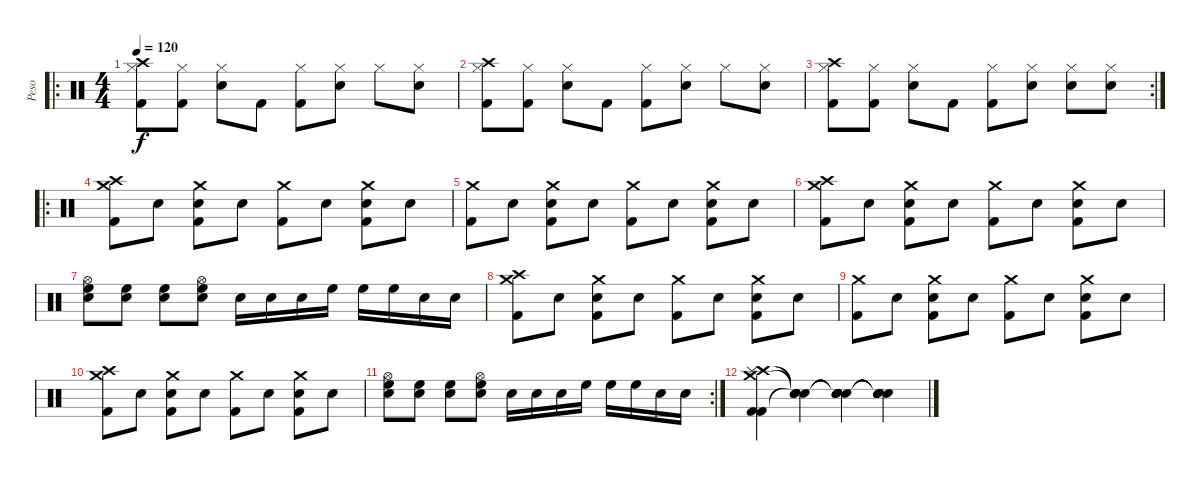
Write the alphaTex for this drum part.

\track ("Peso" "Peso") {instrument percussion}
\staff {score}
\articulation defaults
\ro
\ts (4 4)
\tempo 120
\clef neutral
\ks c
("Crash high (hit)" "Hi-Hat (closed)" "Kick (hit) 2").8{dy f} ("Hi-Hat (closed)" "Kick (hit) 2").8 ("Hi-Hat (closed)" "Snare (hit) 2").8 "Kick (hit) 2".8 ("Hi-Hat (closed)" "Kick (hit) 2").8 ("Hi-Hat (closed)" "Snare (hit) 2").8 "Hi-Hat (closed)".8 ("Hi-Hat (closed)" "Snare (hit) 2").8 |
("Crash high (hit)" "Hi-Hat (closed)" "Kick (hit) 2").8 ("Hi-Hat (closed)" "Kick (hit) 2").8 ("Hi-Hat (closed)" "Snare (hit) 2").8 "Kick (hit) 2".8 ("Hi-Hat (closed)" "Kick (hit) 2").8 ("Hi-Hat (closed)" "Snare (hit) 2").8 "Hi-Hat (closed)".8 ("Hi-Hat (closed)" "Snare (hit) 2").8 |
\rc 2
("Crash high (hit)" "Hi-Hat (closed)" "Kick (hit) 2").8 ("Hi-Hat (closed)" "Kick (hit) 2").8 ("Hi-Hat (closed)" "Snare (hit) 2").8 "Kick (hit) 2".8 ("Hi-Hat (closed)" "Kick (hit) 2").8 ("Hi-Hat (closed)" "Snare (hit) 2").8 ("Hi-Hat (closed)" "Snare (hit) 2").8 ("Hi-Hat (closed)" "Snare (hit) 2").8 |
\ro
("Crash high (hit)" "Crash medium (hit)" "Kick (hit) 2").8 "Snare (hit) 2"{x}.8 ("Crash medium (hit)" "Snare (hit) 2" "Kick (hit) 2").8 "Snare (hit) 2"{x}.8 ("Crash medium (hit)" "Kick (hit) 2").8 "Snare (hit) 2"{x}.8 ("Crash medium (hit)" "Snare (hit) 2" "Kick (hit) 2").8 "Snare (hit) 2"{x}.8 |
("Crash medium (hit)" "Kick (hit) 2").8 "Snare (hit) 2"{x}.8 ("Crash medium (hit)" "Snare (hit) 2" "Kick (hit) 2").8 "Snare (hit) 2"{x}.8 ("Crash medium (hit)" "Kick (hit) 2").8 "Snare (hit) 2"{x}.8 ("Crash medium (hit)" "Snare (hit) 2" "Kick (hit) 2").8 "Snare (hit) 2"{x}.8 |
("Crash high (hit)" "Crash medium (hit)" "Kick (hit) 2").8 "Snare (hit) 2"{x}.8 ("Crash medium (hit)" "Snare (hit) 2" "Kick (hit) 2").8 "Snare (hit) 2"{x}.8 ("Crash medium (hit)" "Kick (hit) 2").8 "Snare (hit) 2"{x}.8 ("Crash medium (hit)" "Snare (hit) 2" "Kick (hit) 2").8 "Snare (hit) 2"{x}.8 |
("Hi-Hat (open)" "High Floor Tom (hit)" "Snare (hit) 2").8 ("High Floor Tom (hit)" "Snare (hit) 2").8 ("High Floor Tom (hit)" "Snare (hit) 2").8 ("Hi-Hat (open)" "High Floor Tom (hit)" "Snare (hit) 2").8 "Snare (hit) 2".16 "Snare (hit) 2".16 "Snare (hit) 2".16 "High Floor Tom (hit)".16 "High Floor Tom (hit)".16 "High Floor Tom (hit)".16 "Snare (hit) 2".16 "Snare (hit) 2".16 |
("Crash high (hit)" "Crash medium (hit)" "Kick (hit) 2").8 "Snare (hit) 2"{x}.8 ("Crash medium (hit)" "Snare (hit) 2" "Kick (hit) 2").8 "Snare (hit) 2"{x}.8 ("Crash medium (hit)" "Kick (hit) 2").8 "Snare (hit) 2"{x}.8 ("Crash medium (hit)" "Snare (hit) 2" "Kick (hit) 2").8 "Snare (hit) 2"{x}.8 |
("Crash medium (hit)" "Kick (hit) 2").8 "Snare (hit) 2"{x}.8 ("Crash medium (hit)" "Snare (hit) 2" "Kick (hit) 2").8 "Snare (hit) 2"{x}.8 ("Crash medium (hit)" "Kick (hit) 2").8 "Snare (hit) 2"{x}.8 ("Crash medium (hit)" "Snare (hit) 2" "Kick (hit) 2").8 "Snare (hit) 2"{x}.8 |
("Crash high (hit)" "Crash medium (hit)" "Kick (hit) 2").8 "Snare (hit) 2"{x}.8 ("Crash medium (hit)" "Snare (hit) 2" "Kick (hit) 2").8 "Snare (hit) 2"{x}.8 ("Crash medium (hit)" "Kick (hit) 2").8 "Snare (hit) 2"{x}.8 ("Crash medium (hit)" "Snare (hit) 2" "Kick (hit) 2").8 "Snare (hit) 2"{x}.8 |
\rc 2
("Hi-Hat (open)" "High Floor Tom (hit)" "Snare (hit) 2").8 ("High Floor Tom (hit)" "Snare (hit) 2").8 ("High Floor Tom (hit)" "Snare (hit) 2").8 ("Hi-Hat (open)" "High Floor Tom (hit)" "Snare (hit) 2").8 "Snare (hit) 2".16 "Snare (hit) 2".16 "Snare (hit) 2".16 "High Floor Tom (hit)".16 "High Floor Tom (hit)".16 "High Floor Tom (hit)".16 "Snare (hit) 2".16 "Snare (hit) 2".16 |
("Crash high (hit)" "Crash medium (hit)" "Splash (hit)" "Kick (hit) 2" "Kick (hit) 2").4 ("Snare (hit)"{t} "Snare (hit)"{t} "Snare (hit)"{t} "Snare (hit)"{t}).4 ("Snare (hit)"{t} "Snare (hit)"{t} "Snare (hit)"{t} "Snare (hit)"{t}).4 ("Snare (hit)"{t} "Snare (hit)"{t} "Snare (hit)"{t} "Snare (hit)"{t}).4
